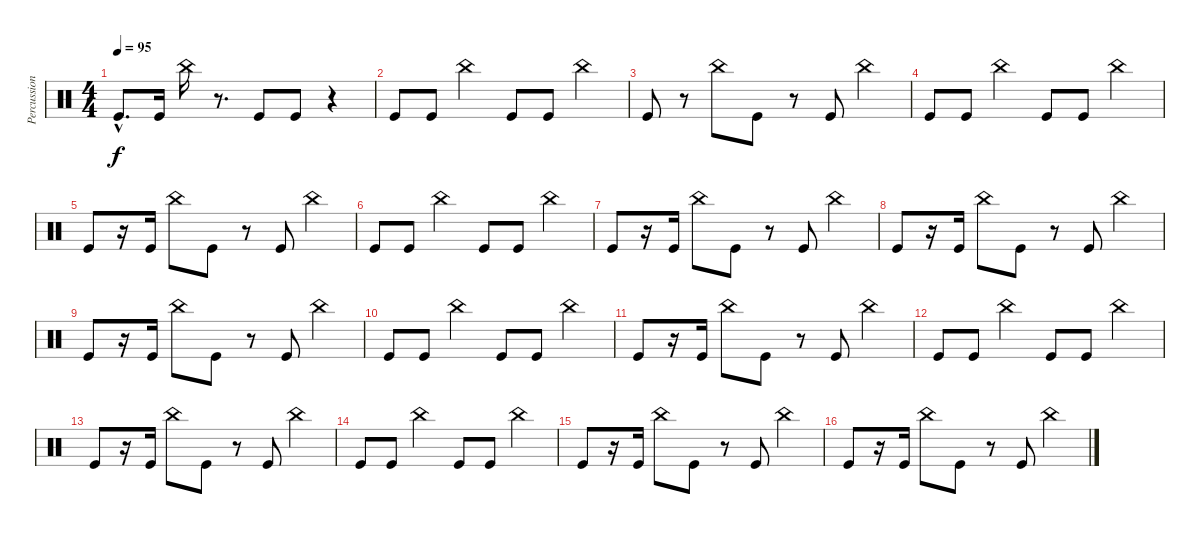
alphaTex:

\track ("Percussion" "Percussion") {instrument percussion}
\staff {score}
\articulation defaults
\ts (4 4)
\tempo 95
\clef neutral
\ks c "Kick (hit)"{hac}.8{d dy f} "Kick (hit)".16 "China (hit)".16
r.8{d} "Kick (hit)".8 "Kick (hit)".8 r.4 |
"Kick (hit)".8 "Kick (hit)".8 "China (hit)".4 "Kick (hit)".8 "Kick (hit)".8 "China (hit)".4 |
"Kick (hit)".8 r.8 "China (hit)".8 "Kick (hit)".8 r.8 "Kick (hit)".8 "China (hit)".4 |
"Kick (hit)".8 "Kick (hit)".8 "China (hit)".4 "Kick (hit)".8 "Kick (hit)".8 "China (hit)".4 |
"Kick (hit)".8 r.16 "Kick (hit)".16 "China (hit)".8 "Kick (hit)".8 r.8 "Kick (hit)".8 "China (hit)".4 |
"Kick (hit)".8 "Kick (hit)".8 "China (hit)".4 "Kick (hit)".8 "Kick (hit)".8 "China (hit)".4 |
"Kick (hit)".8 r.16 "Kick (hit)".16 "China (hit)".8 "Kick (hit)".8 r.8 "Kick (hit)".8 "China (hit)".4 |
"Kick (hit)".8 r.16 "Kick (hit)".16 "China (hit)".8 "Kick (hit)".8 r.8 "Kick (hit)".8 "China (hit)".4 |
"Kick (hit)".8 r.16 "Kick (hit)".16 "China (hit)".8 "Kick (hit)".8 r.8 "Kick (hit)".8 "China (hit)".4 |
"Kick (hit)".8 "Kick (hit)".8 "China (hit)".4 "Kick (hit)".8 "Kick (hit)".8 "China (hit)".4 |
"Kick (hit)".8 r.16 "Kick (hit)".16 "China (hit)".8 "Kick (hit)".8 r.8 "Kick (hit)".8 "China (hit)".4 |
"Kick (hit)".8 "Kick (hit)".8 "China (hit)".4 "Kick (hit)".8 "Kick (hit)".8 "China (hit)".4 |
"Kick (hit)".8 r.16 "Kick (hit)".16 "China (hit)".8 "Kick (hit)".8 r.8 "Kick (hit)".8 "China (hit)".4 |
"Kick (hit)".8 "Kick (hit)".8 "China (hit)".4 "Kick (hit)".8 "Kick (hit)".8 "China (hit)".4 |
"Kick (hit)".8 r.16 "Kick (hit)".16 "China (hit)".8 "Kick (hit)".8 r.8 "Kick (hit)".8 "China (hit)".4 |
"Kick (hit)".8 r.16 "Kick (hit)".16 "China (hit)".8 "Kick (hit)".8 r.8 "Kick (hit)".8 "China (hit)".4
